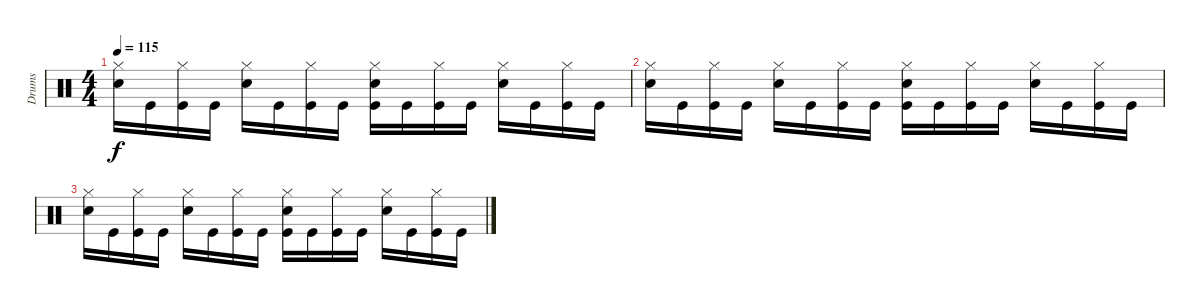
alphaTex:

\track ("Drums" "Drums") {instrument percussion}
\staff {score}
\articulation defaults
\ts (4 4)
\tempo 115
\clef neutral
\ks c
("Hi-Hat (closed)" "Snare (hit) 2").16{dy f} "Kick (hit)".16 ("Hi-Hat (closed)" "Kick (hit)").16 "Kick (hit)".16 ("Hi-Hat (closed)" "Snare (hit) 2").16 "Kick (hit)".16 ("Hi-Hat (closed)" "Kick (hit)").16 "Kick (hit)".16 ("Hi-Hat (closed)" "Snare (hit) 2" "Kick (hit)").16 "Kick (hit)".16 ("Hi-Hat (closed)" "Kick (hit)").16 "Kick (hit)".16 ("Hi-Hat (closed)" "Snare (hit) 2").16 "Kick (hit)".16 ("Hi-Hat (closed)" "Kick (hit)").16 "Kick (hit)".16 |
("Hi-Hat (closed)" "Snare (hit) 2").16 "Kick (hit)".16 ("Hi-Hat (closed)" "Kick (hit)").16 "Kick (hit)".16 ("Hi-Hat (closed)" "Snare (hit) 2").16 "Kick (hit)".16 ("Hi-Hat (closed)" "Kick (hit)").16 "Kick (hit)".16 ("Hi-Hat (closed)" "Snare (hit) 2" "Kick (hit)").16 "Kick (hit)".16 ("Hi-Hat (closed)" "Kick (hit)").16 "Kick (hit)".16 ("Hi-Hat (closed)" "Snare (hit) 2").16 "Kick (hit)".16 ("Hi-Hat (closed)" "Kick (hit)").16 "Kick (hit)".16 |
("Hi-Hat (closed)" "Snare (hit) 2").16 "Kick (hit)".16 ("Hi-Hat (closed)" "Kick (hit)").16 "Kick (hit)".16 ("Hi-Hat (closed)" "Snare (hit) 2").16 "Kick (hit)".16 ("Hi-Hat (closed)" "Kick (hit)").16 "Kick (hit)".16 ("Hi-Hat (closed)" "Snare (hit) 2" "Kick (hit)").16 "Kick (hit)".16 ("Hi-Hat (closed)" "Kick (hit)").16 "Kick (hit)".16 ("Hi-Hat (closed)" "Snare (hit) 2").16 "Kick (hit)".16 ("Hi-Hat (closed)" "Kick (hit)").16 "Kick (hit)".16
